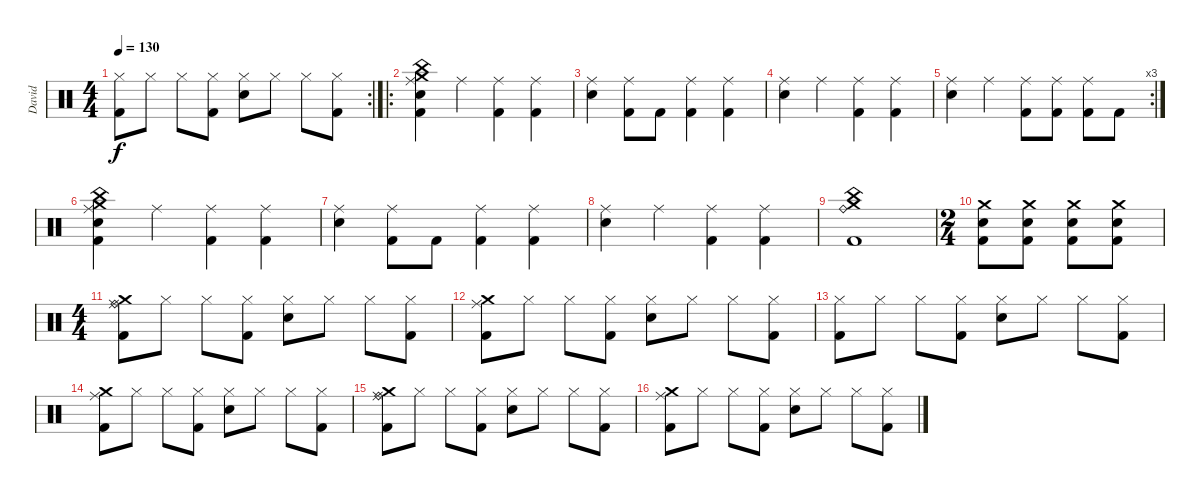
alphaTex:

\track ("David" "David") {instrument percussion}
\staff {score}
\articulation defaults
\rc 2
\ts (4 4)
\tempo 130
\clef neutral
\ks c
("Hi-Hat (closed)" "Kick (hit) 2").8{dy f} "Hi-Hat (closed)".8 "Hi-Hat (closed)".8 ("Hi-Hat (closed)" "Kick (hit) 2").8 ("Hi-Hat (closed)" "Electric Snare (hit)").8 "Hi-Hat (closed)".8 "Hi-Hat (closed)".8 ("Hi-Hat (closed)" "Kick (hit) 2").8 |
\ro
("Ride (middle)" "Crash medium (hit)" "China (hit)" "Electric Snare (hit)" "Kick (hit) 2").4 "Ride (middle)".4 ("Ride (middle)" "Kick (hit) 2").4 ("Ride (middle)" "Kick (hit) 2").4 |
("Ride (middle)" "Electric Snare (hit)").4 ("Ride (middle)" "Kick (hit) 2").8 "Kick (hit) 2".8 ("Ride (middle)" "Kick (hit) 2").4 ("Ride (middle)" "Kick (hit) 2").4 |
("Ride (middle)" "Electric Snare (hit)").4 "Ride (middle)".4 ("Ride (middle)" "Kick (hit) 2").4 ("Ride (middle)" "Kick (hit) 2").4 |
\rc 3
("Ride (middle)" "Electric Snare (hit)").4 "Ride (middle)".4 ("Ride (middle)" "Kick (hit) 2").8 ("Ride (middle)" "Kick (hit) 2").8 ("Ride (middle)" "Kick (hit) 2").8 "Kick (hit) 2".8 |
("Ride (middle)" "Crash medium (hit)" "China (hit)" "Electric Snare (hit)" "Kick (hit) 2").4 "Ride (middle)".4 ("Ride (middle)" "Kick (hit) 2").4 ("Ride (middle)" "Kick (hit) 2").4 |
("Ride (middle)" "Electric Snare (hit)").4 ("Ride (middle)" "Kick (hit) 2").8 "Kick (hit) 2".8 ("Ride (middle)" "Kick (hit) 2").4 ("Ride (middle)" "Kick (hit) 2").4 |
("Ride (middle)" "Electric Snare (hit)").4 "Ride (middle)".4 ("Ride (middle)" "Kick (hit) 2").4 ("Ride (middle)" "Kick (hit) 2").4 |
("China (hit)" "Ride (bell)" "Crash medium (hit)" "Kick (hit) 2").1 |
\ts (2 4)
("Crash medium (hit)" "Electric Snare (hit)" "Kick (hit) 2").8 ("Crash medium (hit)" "Electric Snare (hit)" "Kick (hit) 2").8 ("Crash medium (hit)" "Electric Snare (hit)" "Kick (hit) 2").8 ("Crash medium (hit)" "Electric Snare (hit)" "Kick (hit) 2").8 |
\ts (4 4)
("Crash medium (hit)" "Ride (middle)" "Ride (bell)" "Kick (hit) 2").8 "Hi-Hat (closed)".8 "Hi-Hat (closed)".8 ("Hi-Hat (closed)" "Kick (hit) 2").8 ("Hi-Hat (closed)" "Electric Snare (hit)").8 "Hi-Hat (closed)".8 "Hi-Hat (closed)".8 ("Hi-Hat (closed)" "Kick (hit) 2").8 |
("Crash medium (hit)" "Ride (middle)" "Kick (hit) 2").8 "Hi-Hat (closed)".8 "Hi-Hat (closed)".8 ("Hi-Hat (closed)" "Kick (hit) 2").8 ("Hi-Hat (closed)" "Electric Snare (hit)").8 "Hi-Hat (closed)".8 "Hi-Hat (closed)".8 ("Hi-Hat (closed)" "Kick (hit) 2").8 |
("Hi-Hat (closed)" "Kick (hit) 2").8 "Hi-Hat (closed)".8 "Hi-Hat (closed)".8 ("Hi-Hat (closed)" "Kick (hit) 2").8 ("Hi-Hat (closed)" "Electric Snare (hit)").8 "Hi-Hat (closed)".8 "Hi-Hat (closed)".8 ("Hi-Hat (closed)" "Kick (hit) 2").8 |
("Crash medium (hit)" "Ride (middle)" "Kick (hit) 2").8 "Hi-Hat (closed)".8 "Hi-Hat (closed)".8 ("Hi-Hat (closed)" "Kick (hit) 2").8 ("Hi-Hat (closed)" "Electric Snare (hit)").8 "Hi-Hat (closed)".8 "Hi-Hat (closed)".8 ("Hi-Hat (closed)" "Kick (hit) 2").8 |
("Crash medium (hit)" "Ride (middle)" "Ride (bell)" "Kick (hit) 2").8 "Hi-Hat (closed)".8 "Hi-Hat (closed)".8 ("Hi-Hat (closed)" "Kick (hit) 2").8 ("Hi-Hat (closed)" "Electric Snare (hit)").8 "Hi-Hat (closed)".8 "Hi-Hat (closed)".8 ("Hi-Hat (closed)" "Kick (hit) 2").8 |
("Crash medium (hit)" "Ride (middle)" "Kick (hit) 2").8 "Hi-Hat (closed)".8 "Hi-Hat (closed)".8 ("Hi-Hat (closed)" "Kick (hit) 2").8 ("Hi-Hat (closed)" "Electric Snare (hit)").8 "Hi-Hat (closed)".8 "Hi-Hat (closed)".8 ("Hi-Hat (closed)" "Kick (hit) 2").8
